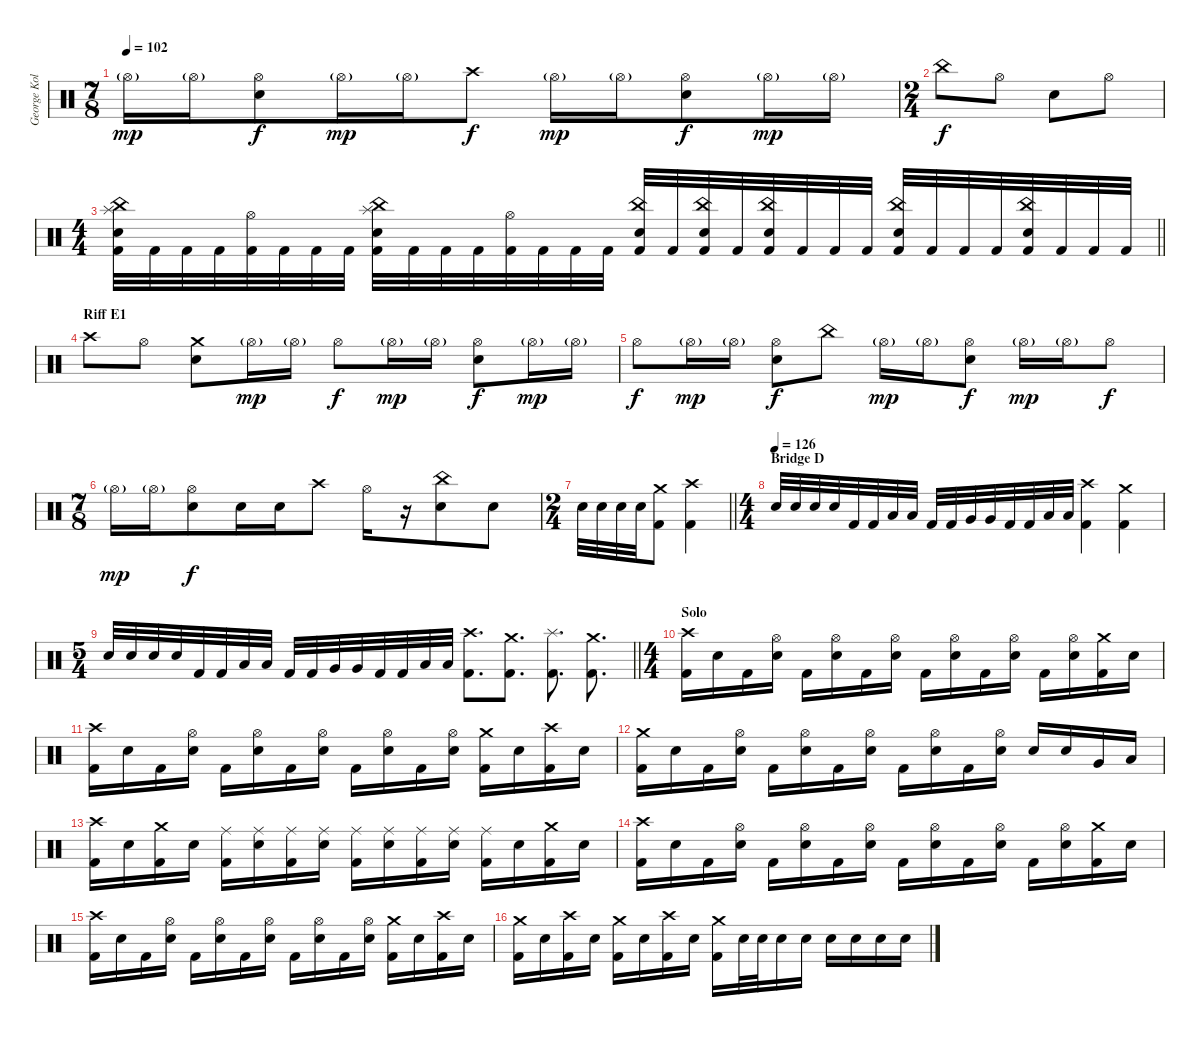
\track ("George Kollias" "George Kol") {instrument percussion}
\staff {score}
\articulation defaults
\ts (7 8)
\tempo 102
\clef neutral
\ks c "Hi-Hat (open)"{g}.16{dy mp} "Hi-Hat (open)"{g}.16
("Hi-Hat (open)" "Electric Snare (hit)").8{dy f} "Hi-Hat (open)"{g}.16{dy mp} "Hi-Hat (open)"{g}.16 "Crash high (hit)".8{dy f} "Hi-Hat (open)"{g}.16{dy mp} "Hi-Hat (open)"{g}.16 ("Hi-Hat (open)" "Electric Snare (hit)").8{dy f} "Hi-Hat (open)"{g}.16{dy mp} "Hi-Hat (open)"{g}.16 |
\ts (2 4)
"China (hit)".8{dy f} "Hi-Hat (open)".8 "Electric Snare (hit)".8 "Hi-Hat (open)".8 |
\ts (4 4)
\barLineRight lightlight
("Splash (hit)" "China (hit)" "Electric Snare (hit)" "Kick (hit) 2").32 "Kick (hit) 2".32 "Kick (hit) 2".32 "Kick (hit) 2".32 ("Hi-Hat (open)" "Kick (hit) 2").32 "Kick (hit) 2".32 "Kick (hit) 2".32 "Kick (hit) 2".32 ("Splash (hit)" "China (hit)" "Electric Snare (hit)" "Kick (hit) 2").32 "Kick (hit) 2".32 "Kick (hit) 2".32 "Kick (hit) 2".32 ("Hi-Hat (open)" "Kick (hit) 2").32 "Kick (hit) 2".32 "Kick (hit) 2".32 "Kick (hit) 2".32 ("China (hit)" "Electric Snare (hit)" "Kick (hit) 2").32 "Kick (hit) 2".32 ("China (hit)" "Electric Snare (hit)" "Kick (hit) 2").32 "Kick (hit) 2".32 ("China (hit)" "Electric Snare (hit)" "Kick (hit) 2").32 "Kick (hit) 2".32 "Kick (hit) 2".32 "Kick (hit) 2".32 ("China (hit)" "Electric Snare (hit)" "Kick (hit) 2").32 "Kick (hit) 2".32 "Kick (hit) 2".32 "Kick (hit) 2".32 ("China (hit)" "Electric Snare (hit)" "Kick (hit) 2").32 "Kick (hit) 2".32 "Kick (hit) 2".32 "Kick (hit) 2".32 |
\section ("" "Riff E1")
"Crash high (hit)".8 "Hi-Hat (open)".8 ("Crash medium (hit)" "Electric Snare (hit)").8 "Hi-Hat (open)"{g}.16{dy mp} "Hi-Hat (open)"{g}.16 "Hi-Hat (open)".8{dy f} "Hi-Hat (open)"{g}.16{dy mp} "Hi-Hat (open)"{g}.16 ("Hi-Hat (open)" "Electric Snare (hit)").8{dy f} "Hi-Hat (open)"{g}.16{dy mp} "Hi-Hat (open)"{g}.16 |
"Hi-Hat (open)".8{dy f} "Hi-Hat (open)"{g}.16{dy mp} "Hi-Hat (open)"{g}.16 ("Hi-Hat (open)" "Electric Snare (hit)").8{dy f} "China (hit)".8 "Hi-Hat (open)"{g}.16{dy mp} "Hi-Hat (open)"{g}.16 ("Hi-Hat (open)" "Electric Snare (hit)").8{dy f} "Hi-Hat (open)"{g}.16{dy mp} "Hi-Hat (open)"{g}.16 "Hi-Hat (open)".8{dy f} |
\ts (7 8)
"Hi-Hat (open)"{g}.16{dy mp} "Hi-Hat (open)"{g}.16 ("Hi-Hat (open)" "Electric Snare (hit)").8{dy f} "Electric Snare (hit)".16 "Electric Snare (hit)".16 "Crash high (hit)".8 "Hi-Hat (open)".16 r.16 ("China (hit)" "Electric Snare (hit)").8 "Electric Snare (hit)".8 |
\ts (2 4)
\barLineRight lightlight "Electric Snare (hit)".32 "Electric Snare (hit)".32 "Electric Snare (hit)".32 "Electric Snare (hit)".32
("Crash medium (hit)" "Kick (hit) 2").8 ("Crash high (hit)" "Kick (hit) 2").4 |
\ts (4 4)
\section ("" "Bridge D")
\tempo (126)
"Electric Snare (hit)".32 "Electric Snare (hit)".32 "Electric Snare (hit)".32 "Electric Snare (hit)".32 "Kick (hit) 2".32 "Kick (hit) 2".32 "Low Tom (hit)".32 "Low Tom (hit)".32 "Kick (hit) 2".32 "Kick (hit) 2".32 "Very Low Tom (hit)".32 "Very Low Tom (hit)".32 "Kick (hit) 2".32 "Kick (hit) 2".32 "Low Floor Tom (hit)".32 "Low Floor Tom (hit)".32 ("Crash high (hit)" "Kick (hit) 2").4 ("Crash medium (hit)" "Kick (hit) 2").4 |
\ts (5 4)
\barLineRight lightlight "Electric Snare (hit)".32 "Electric Snare (hit)".32 "Electric Snare (hit)".32 "Electric Snare (hit)".32 "Kick (hit) 2".32 "Kick (hit) 2".32 "Low Tom (hit)".32 "Low Tom (hit)".32 "Kick (hit) 2".32 "Kick (hit) 2".32 "Very Low Tom (hit)".32 "Very Low Tom (hit)".32 "Kick (hit) 2".32 "Kick (hit) 2".32 "Low Floor Tom (hit)".32 "Low Floor Tom (hit)".32
("Crash high (hit)" "Kick (hit) 2").8{d} ("Crash medium (hit)" "Kick (hit) 2").8{d} ("Splash (hit)" "Kick (hit) 2").8{d} ("Crash medium (hit)" "Kick (hit) 2").8{d} |
\ts (4 4)
\section ("" "Solo")
("Crash high (hit)" "Kick (hit) 2").16 "Electric Snare (hit)".16 "Kick (hit) 2".16 ("Hi-Hat (open)" "Electric Snare (hit)").16 "Kick (hit) 2".16 ("Hi-Hat (open)" "Electric Snare (hit)").16 "Kick (hit) 2".16 ("Hi-Hat (open)" "Electric Snare (hit)").16 "Kick (hit) 2".16 ("Hi-Hat (open)" "Electric Snare (hit)").16 "Kick (hit) 2".16 ("Hi-Hat (open)" "Electric Snare (hit)").16 "Kick (hit) 2".16 ("Hi-Hat (open)" "Electric Snare (hit)").16 ("Crash medium (hit)" "Kick (hit) 2").16 "Electric Snare (hit)".16 |
("Crash high (hit)" "Kick (hit) 2").16 "Electric Snare (hit)".16 "Kick (hit) 2".16 ("Hi-Hat (open)" "Electric Snare (hit)").16 "Kick (hit) 2".16 ("Hi-Hat (open)" "Electric Snare (hit)").16 "Kick (hit) 2".16 ("Hi-Hat (open)" "Electric Snare (hit)").16 "Kick (hit) 2".16 ("Hi-Hat (open)" "Electric Snare (hit)").16 "Kick (hit) 2".16 ("Hi-Hat (open)" "Electric Snare (hit)").16 ("Crash medium (hit)" "Kick (hit) 2").16 "Electric Snare (hit)".16 ("Crash high (hit)" "Kick (hit) 2").16 "Electric Snare (hit)".16 |
("Crash medium (hit)" "Kick (hit) 2").16 "Electric Snare (hit)".16 "Kick (hit) 2".16 ("Hi-Hat (open)" "Electric Snare (hit)").16 "Kick (hit) 2".16 ("Hi-Hat (open)" "Electric Snare (hit)").16 "Kick (hit) 2".16 ("Hi-Hat (open)" "Electric Snare (hit)").16 "Kick (hit) 2".16 ("Hi-Hat (open)" "Electric Snare (hit)").16 "Kick (hit) 2".16 ("Hi-Hat (open)" "Electric Snare (hit)").16 "Electric Snare (hit)".16 "Electric Snare (hit)".16 "Very Low Tom (hit)".16 "Low Floor Tom (hit)".16 |
("Crash high (hit)" "Kick (hit) 2").16 "Electric Snare (hit)".16 ("Crash medium (hit)" "Kick (hit) 2").16 "Electric Snare (hit)".16 ("Ride (middle)" "Kick (hit) 2").16 ("Ride (middle)" "Electric Snare (hit)").16 ("Ride (middle)" "Kick (hit) 2").16 ("Ride (middle)" "Electric Snare (hit)").16 ("Ride (middle)" "Kick (hit) 2").16 ("Ride (middle)" "Electric Snare (hit)").16 ("Ride (middle)" "Kick (hit) 2").16 ("Ride (middle)" "Electric Snare (hit)").16 ("Ride (middle)" "Kick (hit) 2").16 "Electric Snare (hit)".16 ("Crash medium (hit)" "Kick (hit) 2").16 "Electric Snare (hit)".16 |
("Crash high (hit)" "Kick (hit) 2").16 "Electric Snare (hit)".16 "Kick (hit) 2".16 ("Hi-Hat (open)" "Electric Snare (hit)").16 "Kick (hit) 2".16 ("Hi-Hat (open)" "Electric Snare (hit)").16 "Kick (hit) 2".16 ("Hi-Hat (open)" "Electric Snare (hit)").16 "Kick (hit) 2".16 ("Hi-Hat (open)" "Electric Snare (hit)").16 "Kick (hit) 2".16 ("Hi-Hat (open)" "Electric Snare (hit)").16 "Kick (hit) 2".16 ("Hi-Hat (open)" "Electric Snare (hit)").16 ("Crash medium (hit)" "Kick (hit) 2").16 "Electric Snare (hit)".16 |
("Crash high (hit)" "Kick (hit) 2").16 "Electric Snare (hit)".16 "Kick (hit) 2".16 ("Hi-Hat (open)" "Electric Snare (hit)").16 "Kick (hit) 2".16 ("Hi-Hat (open)" "Electric Snare (hit)").16 "Kick (hit) 2".16 ("Hi-Hat (open)" "Electric Snare (hit)").16 "Kick (hit) 2".16 ("Hi-Hat (open)" "Electric Snare (hit)").16 "Kick (hit) 2".16 ("Hi-Hat (open)" "Electric Snare (hit)").16 ("Crash medium (hit)" "Kick (hit) 2").16 "Electric Snare (hit)".16 ("Crash high (hit)" "Kick (hit) 2").16 "Electric Snare (hit)".16 |
("Crash medium (hit)" "Kick (hit) 2").16 "Electric Snare (hit)".16 ("Crash high (hit)" "Kick (hit) 2").16 "Electric Snare (hit)".16 ("Crash medium (hit)" "Kick (hit) 2").16 "Electric Snare (hit)".16 ("Crash high (hit)" "Kick (hit) 2").16 "Electric Snare (hit)".16 ("Crash medium (hit)" "Kick (hit) 2").16 "Electric Snare (hit)".32 "Electric Snare (hit)".32 "Electric Snare (hit)".16 "Electric Snare (hit)".16 "Electric Snare (hit)".16 "Electric Snare (hit)".16 "Electric Snare (hit)".16 "Electric Snare (hit)".16
